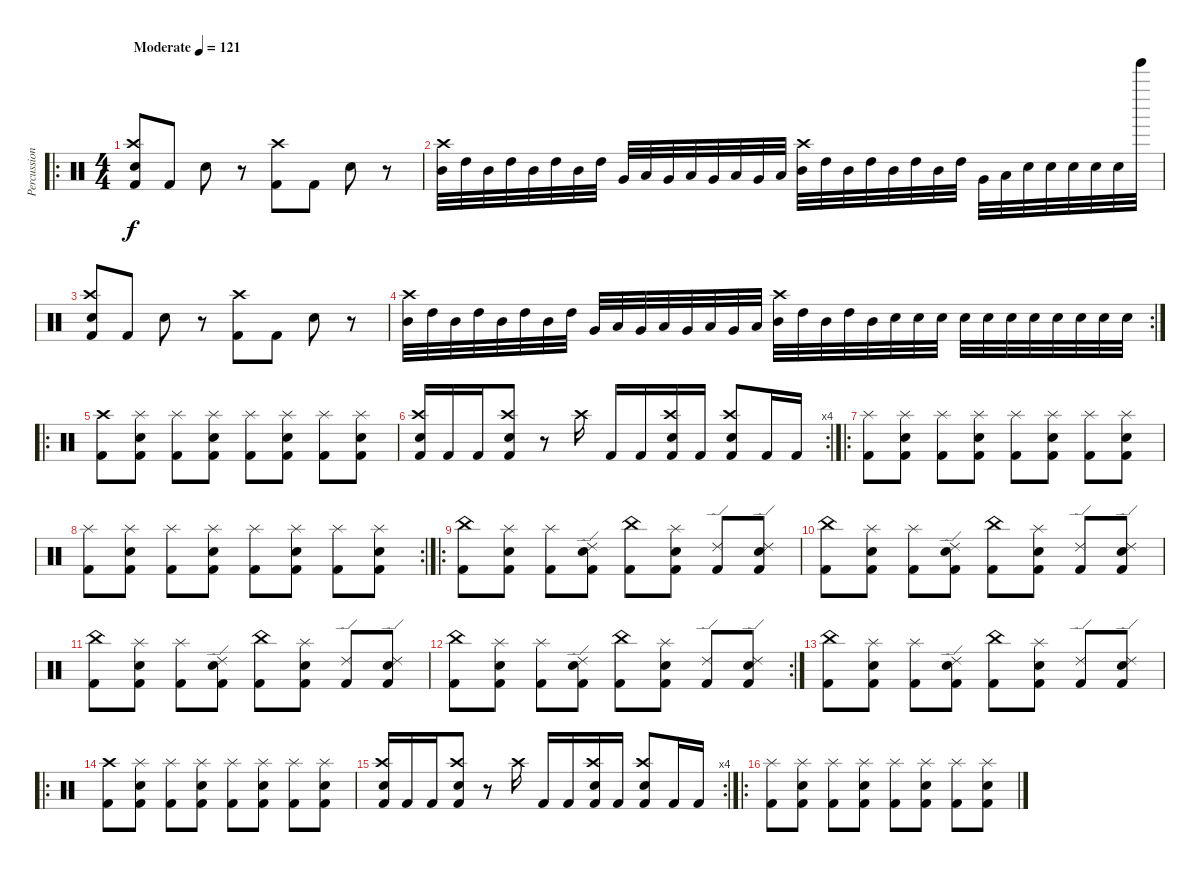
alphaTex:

\track ("Percussion" "Percussion") {instrument percussion}
\staff {score}
\articulation defaults
\ro
\ts (4 4)
\tempo (121 "Moderate")
\clef neutral
\ks c
("Snare (hit) 2" "Crash high (hit)" "Kick (hit) 2").8{dy f} "Kick (hit) 2".8 "Snare (hit) 2".8 r.8 ("Crash high (hit)" "Kick (hit) 2").8 "Kick (hit) 2".8 "Snare (hit) 2".8 r.8 |
("Crash high (hit)" "Mid Tom (hit)").32 "High Tom (hit)".32 "Mid Tom (hit)".32 "High Tom (hit)".32 "Mid Tom (hit)".32 "High Tom (hit)".32 "Mid Tom (hit)".32 "High Tom (hit)".32 "Very Low Tom (hit)".32 "Low Tom (hit)".32 "Very Low Tom (hit)".32 "Low Tom (hit)".32 "Very Low Tom (hit)".32 "Low Tom (hit)".32 "Very Low Tom (hit)".32 "Low Tom (hit)".32 ("Crash high (hit)" "Mid Tom (hit)").32 "High Tom (hit)".32 "Mid Tom (hit)".32 "High Tom (hit)".32 "Mid Tom (hit)".32 "High Tom (hit)".32 "Mid Tom (hit)".32 "High Tom (hit)".32 "Very Low Tom (hit)".32 "Low Tom (hit)".32 "Snare (hit) 2".32 "Snare (hit) 2".32 "Snare (hit) 2".32 "Snare (hit) 2".32 "Snare (hit) 2".32 "Tinkle Bell (hit)".32 |
("Snare (hit) 2" "Crash high (hit)" "Kick (hit) 2").8 "Kick (hit) 2".8 "Snare (hit) 2".8 r.8 ("Crash high (hit)" "Kick (hit) 2").8 "Kick (hit) 2".8 "Snare (hit) 2".8 r.8 |
\rc 2
("Crash high (hit)" "Mid Tom (hit)").32 "High Tom (hit)".32 "Mid Tom (hit)".32 "High Tom (hit)".32 "Mid Tom (hit)".32 "High Tom (hit)".32 "Mid Tom (hit)".32 "High Tom (hit)".32 "Very Low Tom (hit)".32 "Low Tom (hit)".32 "Very Low Tom (hit)".32 "Low Tom (hit)".32 "Very Low Tom (hit)".32 "Low Tom (hit)".32 "Very Low Tom (hit)".32 "Low Tom (hit)".32 ("Crash high (hit)" "Mid Tom (hit)").32 "High Tom (hit)".32 "Mid Tom (hit)".32 "High Tom (hit)".32 "Mid Tom (hit)".32 "Snare (hit) 2".32 "Snare (hit) 2".32 "Snare (hit) 2".32 "Snare (hit) 2".32 "Snare (hit) 2".32 "Snare (hit) 2".32 "Snare (hit) 2".32 "Snare (hit) 2".32 "Snare (hit) 2".32 "Snare (hit) 2".32 "Snare (hit) 2".32 |
\ro
("Crash high (hit)" "Kick (hit) 2").8 ("Splash (hit)" "Snare (hit) 2" "Kick (hit) 2").8 ("Splash (hit)" "Kick (hit) 2").8 ("Splash (hit)" "Snare (hit) 2" "Kick (hit) 2").8 ("Splash (hit)" "Kick (hit) 2").8 ("Splash (hit)" "Snare (hit) 2" "Kick (hit) 2").8 ("Splash (hit)" "Kick (hit) 2").8 ("Splash (hit)" "Snare (hit) 2" "Kick (hit) 2").8 |
\rc 4
("Crash high (hit)" "Snare (hit) 2" "Kick (hit) 2").16 "Kick (hit) 2".16 "Kick (hit) 2".16 ("Crash high (hit)" "Snare (hit) 2" "Kick (hit) 2").8 r.8 "Crash high (hit)".16 "Kick (hit) 2".16 "Kick (hit) 2".16 ("Crash high (hit)" "Snare (hit) 2" "Kick (hit) 2").16 "Kick (hit) 2".16 ("Crash high (hit)" "Snare (hit) 2" "Kick (hit) 2").8 "Kick (hit) 2".16 "Kick (hit) 2".16 |
\ro
("Splash (hit)" "Kick (hit) 2").8 ("Splash (hit)" "Snare (hit) 2" "Kick (hit) 2").8 ("Splash (hit)" "Kick (hit) 2").8 ("Splash (hit)" "Snare (hit) 2" "Kick (hit) 2").8 ("Splash (hit)" "Kick (hit) 2").8 ("Splash (hit)" "Snare (hit) 2" "Kick (hit) 2").8 ("Splash (hit)" "Kick (hit) 2").8 ("Splash (hit)" "Snare (hit) 2" "Kick (hit) 2").8 |
\rc 2
("Splash (hit)" "Kick (hit) 2").8 ("Splash (hit)" "Snare (hit) 2" "Kick (hit) 2").8 ("Splash (hit)" "Kick (hit) 2").8 ("Splash (hit)" "Snare (hit) 2" "Kick (hit) 2").8 ("Splash (hit)" "Kick (hit) 2").8 ("Splash (hit)" "Snare (hit) 2" "Kick (hit) 2").8 ("Splash (hit)" "Kick (hit) 2").8 ("Splash (hit)" "Snare (hit) 2" "Kick (hit) 2").8 |
\ro
("China (hit)" "Kick (hit) 2").8 ("Splash (hit)" "Snare (hit) 2" "Kick (hit) 2").8 ("Splash (hit)" "Kick (hit) 2").8 ("Ride (edge) 2" "Snare (hit) 2" "Kick (hit) 2").8 ("China (hit)" "Kick (hit) 2").8 ("Splash (hit)" "Snare (hit) 2" "Kick (hit) 2").8 ("Ride (edge) 2" "Kick (hit) 2").8 ("Ride (edge) 2" "Snare (hit) 2" "Kick (hit) 2").8 |
("China (hit)" "Kick (hit) 2").8 ("Splash (hit)" "Snare (hit) 2" "Kick (hit) 2").8 ("Splash (hit)" "Kick (hit) 2").8 ("Ride (edge) 2" "Snare (hit) 2" "Kick (hit) 2").8 ("China (hit)" "Kick (hit) 2").8 ("Splash (hit)" "Snare (hit) 2" "Kick (hit) 2").8 ("Ride (edge) 2" "Kick (hit) 2").8 ("Ride (edge) 2" "Snare (hit) 2" "Kick (hit) 2").8 |
("China (hit)" "Kick (hit) 2").8 ("Splash (hit)" "Snare (hit) 2" "Kick (hit) 2").8 ("Splash (hit)" "Kick (hit) 2").8 ("Ride (edge) 2" "Snare (hit) 2" "Kick (hit) 2").8 ("China (hit)" "Kick (hit) 2").8 ("Splash (hit)" "Snare (hit) 2" "Kick (hit) 2").8 ("Ride (edge) 2" "Kick (hit) 2").8 ("Ride (edge) 2" "Snare (hit) 2" "Kick (hit) 2").8 |
\rc 2
("China (hit)" "Kick (hit) 2").8 ("Splash (hit)" "Snare (hit) 2" "Kick (hit) 2").8 ("Splash (hit)" "Kick (hit) 2").8 ("Ride (edge) 2" "Snare (hit) 2" "Kick (hit) 2").8 ("China (hit)" "Kick (hit) 2").8 ("Splash (hit)" "Snare (hit) 2" "Kick (hit) 2").8 ("Ride (edge) 2" "Kick (hit) 2").8 ("Ride (edge) 2" "Snare (hit) 2" "Kick (hit) 2").8 |
("China (hit)" "Kick (hit) 2").8 ("Splash (hit)" "Snare (hit) 2" "Kick (hit) 2").8 ("Splash (hit)" "Kick (hit) 2").8 ("Ride (edge) 2" "Snare (hit) 2" "Kick (hit) 2").8 ("China (hit)" "Kick (hit) 2").8 ("Splash (hit)" "Snare (hit) 2" "Kick (hit) 2").8 ("Ride (edge) 2" "Kick (hit) 2").8 ("Ride (edge) 2" "Snare (hit) 2" "Kick (hit) 2").8 |
\ro
("Crash high (hit)" "Kick (hit) 2").8 ("Splash (hit)" "Snare (hit) 2" "Kick (hit) 2").8 ("Splash (hit)" "Kick (hit) 2").8 ("Splash (hit)" "Snare (hit) 2" "Kick (hit) 2").8 ("Splash (hit)" "Kick (hit) 2").8 ("Splash (hit)" "Snare (hit) 2" "Kick (hit) 2").8 ("Splash (hit)" "Kick (hit) 2").8 ("Splash (hit)" "Snare (hit) 2" "Kick (hit) 2").8 |
\rc 4
("Crash high (hit)" "Snare (hit) 2" "Kick (hit) 2").16 "Kick (hit) 2".16 "Kick (hit) 2".16 ("Crash high (hit)" "Snare (hit) 2" "Kick (hit) 2").8 r.8 "Crash high (hit)".16 "Kick (hit) 2".16 "Kick (hit) 2".16 ("Crash high (hit)" "Snare (hit) 2" "Kick (hit) 2").16 "Kick (hit) 2".16 ("Crash high (hit)" "Snare (hit) 2" "Kick (hit) 2").8 "Kick (hit) 2".16 "Kick (hit) 2".16 |
\ro
("Splash (hit)" "Kick (hit) 2").8 ("Splash (hit)" "Snare (hit) 2" "Kick (hit) 2").8 ("Splash (hit)" "Kick (hit) 2").8 ("Splash (hit)" "Snare (hit) 2" "Kick (hit) 2").8 ("Splash (hit)" "Kick (hit) 2").8 ("Splash (hit)" "Snare (hit) 2" "Kick (hit) 2").8 ("Splash (hit)" "Kick (hit) 2").8 ("Splash (hit)" "Snare (hit) 2" "Kick (hit) 2").8
